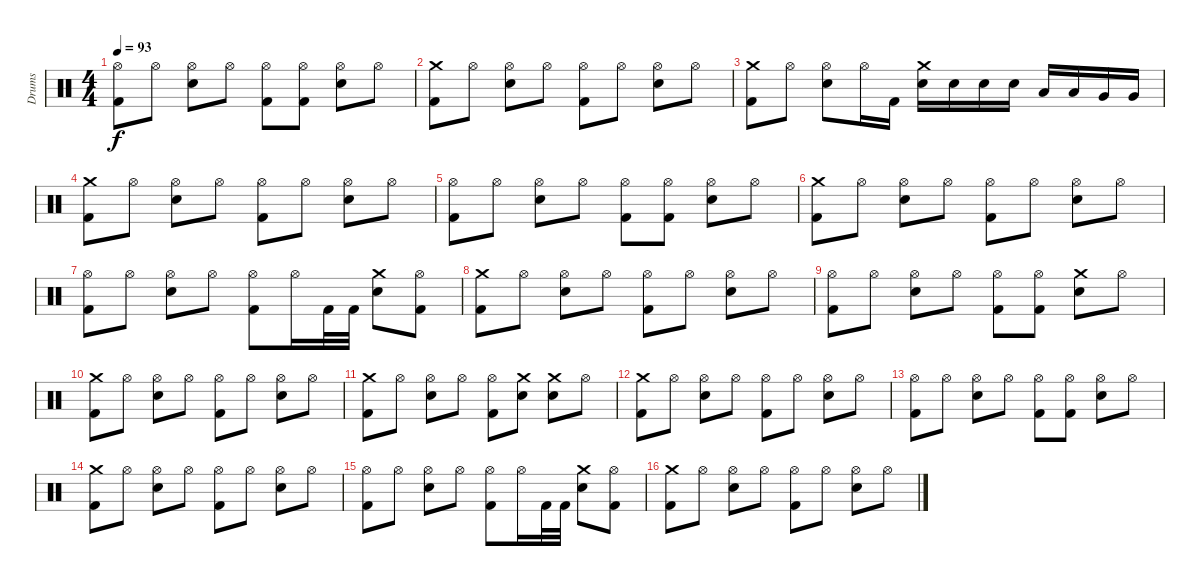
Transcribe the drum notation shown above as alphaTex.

\track ("Drums" "Drums") {instrument percussion}
\staff {score}
\articulation defaults
\ts (4 4)
\tempo 93
\clef neutral
\ks c
("Hi-Hat (open)" "Kick (hit) 2").8{dy f} "Hi-Hat (open)".8 ("Hi-Hat (open)" "Electric Snare (hit)").8 "Hi-Hat (open)".8 ("Hi-Hat (open)" "Kick (hit) 2").8 ("Hi-Hat (open)" "Kick (hit) 2").8 ("Hi-Hat (open)" "Electric Snare (hit)").8 "Hi-Hat (open)".8 |
("Crash medium (hit)" "Kick (hit) 2").8 "Hi-Hat (open)".8 ("Hi-Hat (open)" "Electric Snare (hit)").8 "Hi-Hat (open)".8 ("Hi-Hat (open)" "Kick (hit) 2").8 "Hi-Hat (open)".8 ("Hi-Hat (open)" "Electric Snare (hit)").8 "Hi-Hat (open)".8 |
("Crash medium (hit)" "Kick (hit) 2").8 "Hi-Hat (open)".8 ("Hi-Hat (open)" "Electric Snare (hit)").8 "Hi-Hat (open)".16 "Kick (hit) 2".16 ("Crash medium (hit)" "Electric Snare (hit)").16 "Electric Snare (hit)".16 "Electric Snare (hit)".16 "Electric Snare (hit)".16 "Low Tom (hit)".16 "Low Tom (hit)".16 "Very Low Tom (hit)".16 "Very Low Tom (hit)".16 |
("Crash medium (hit)" "Kick (hit) 2").8 "Hi-Hat (open)".8 ("Hi-Hat (open)" "Electric Snare (hit)").8 "Hi-Hat (open)".8 ("Hi-Hat (open)" "Kick (hit) 2").8 "Hi-Hat (open)".8 ("Hi-Hat (open)" "Electric Snare (hit)").8 "Hi-Hat (open)".8 |
("Hi-Hat (open)" "Kick (hit) 2").8 "Hi-Hat (open)".8 ("Hi-Hat (open)" "Electric Snare (hit)").8 "Hi-Hat (open)".8 ("Hi-Hat (open)" "Kick (hit) 2").8 ("Hi-Hat (open)" "Kick (hit) 2").8 ("Hi-Hat (open)" "Electric Snare (hit)").8 "Hi-Hat (open)".8 |
("Crash medium (hit)" "Kick (hit) 2").8 "Hi-Hat (open)".8 ("Hi-Hat (open)" "Electric Snare (hit)").8 "Hi-Hat (open)".8 ("Hi-Hat (open)" "Kick (hit) 2").8 "Hi-Hat (open)".8 ("Hi-Hat (open)" "Electric Snare (hit)").8 "Hi-Hat (open)".8 |
("Hi-Hat (open)" "Kick (hit) 2").8 "Hi-Hat (open)".8 ("Hi-Hat (open)" "Electric Snare (hit)").8 "Hi-Hat (open)".8 ("Hi-Hat (open)" "Kick (hit) 2").8 "Hi-Hat (open)".16 "Kick (hit) 2".32 "Kick (hit) 2".32 ("Crash medium (hit)" "Electric Snare (hit)").8 ("Hi-Hat (open)" "Kick (hit) 2").8 |
("Crash medium (hit)" "Kick (hit) 2").8 "Hi-Hat (open)".8 ("Hi-Hat (open)" "Electric Snare (hit)").8 "Hi-Hat (open)".8 ("Hi-Hat (open)" "Kick (hit) 2").8 "Hi-Hat (open)".8 ("Hi-Hat (open)" "Electric Snare (hit)").8 "Hi-Hat (open)".8 |
("Hi-Hat (open)" "Kick (hit) 2").8 "Hi-Hat (open)".8 ("Hi-Hat (open)" "Electric Snare (hit)").8 "Hi-Hat (open)".8 ("Hi-Hat (open)" "Kick (hit) 2").8 ("Hi-Hat (open)" "Kick (hit) 2").8 ("Crash medium (hit)" "Electric Snare (hit)").8 "Hi-Hat (open)".8 |
("Crash medium (hit)" "Kick (hit) 2").8 "Hi-Hat (open)".8 ("Hi-Hat (open)" "Electric Snare (hit)").8 "Hi-Hat (open)".8 ("Hi-Hat (open)" "Kick (hit) 2").8 "Hi-Hat (open)".8 ("Hi-Hat (open)" "Electric Snare (hit)").8 "Hi-Hat (open)".8 |
("Crash medium (hit)" "Kick (hit) 2").8 "Hi-Hat (open)".8 ("Hi-Hat (open)" "Electric Snare (hit)").8 "Hi-Hat (open)".8 ("Hi-Hat (open)" "Kick (hit) 2").8 ("Crash medium (hit)" "Electric Snare (hit)").8 ("Crash medium (hit)" "Electric Snare (hit)").8 "Hi-Hat (open)".8 |
("Crash medium (hit)" "Kick (hit) 2").8 "Hi-Hat (open)".8 ("Hi-Hat (open)" "Electric Snare (hit)").8 "Hi-Hat (open)".8 ("Hi-Hat (open)" "Kick (hit) 2").8 "Hi-Hat (open)".8 ("Hi-Hat (open)" "Electric Snare (hit)").8 "Hi-Hat (open)".8 |
("Hi-Hat (open)" "Kick (hit) 2").8 "Hi-Hat (open)".8 ("Hi-Hat (open)" "Electric Snare (hit)").8 "Hi-Hat (open)".8 ("Hi-Hat (open)" "Kick (hit) 2").8 ("Hi-Hat (open)" "Kick (hit) 2").8 ("Hi-Hat (open)" "Electric Snare (hit)").8 "Hi-Hat (open)".8 |
("Crash medium (hit)" "Kick (hit) 2").8 "Hi-Hat (open)".8 ("Hi-Hat (open)" "Electric Snare (hit)").8 "Hi-Hat (open)".8 ("Hi-Hat (open)" "Kick (hit) 2").8 "Hi-Hat (open)".8 ("Hi-Hat (open)" "Electric Snare (hit)").8 "Hi-Hat (open)".8 |
("Hi-Hat (open)" "Kick (hit) 2").8 "Hi-Hat (open)".8 ("Hi-Hat (open)" "Electric Snare (hit)").8 "Hi-Hat (open)".8 ("Hi-Hat (open)" "Kick (hit) 2").8 "Hi-Hat (open)".16 "Kick (hit) 2".32 "Kick (hit) 2".32 ("Crash medium (hit)" "Electric Snare (hit)").8 ("Hi-Hat (open)" "Kick (hit) 2").8 |
("Crash medium (hit)" "Kick (hit) 2").8 "Hi-Hat (open)".8 ("Hi-Hat (open)" "Electric Snare (hit)").8 "Hi-Hat (open)".8 ("Hi-Hat (open)" "Kick (hit) 2").8 "Hi-Hat (open)".8 ("Hi-Hat (open)" "Electric Snare (hit)").8 "Hi-Hat (open)".8
